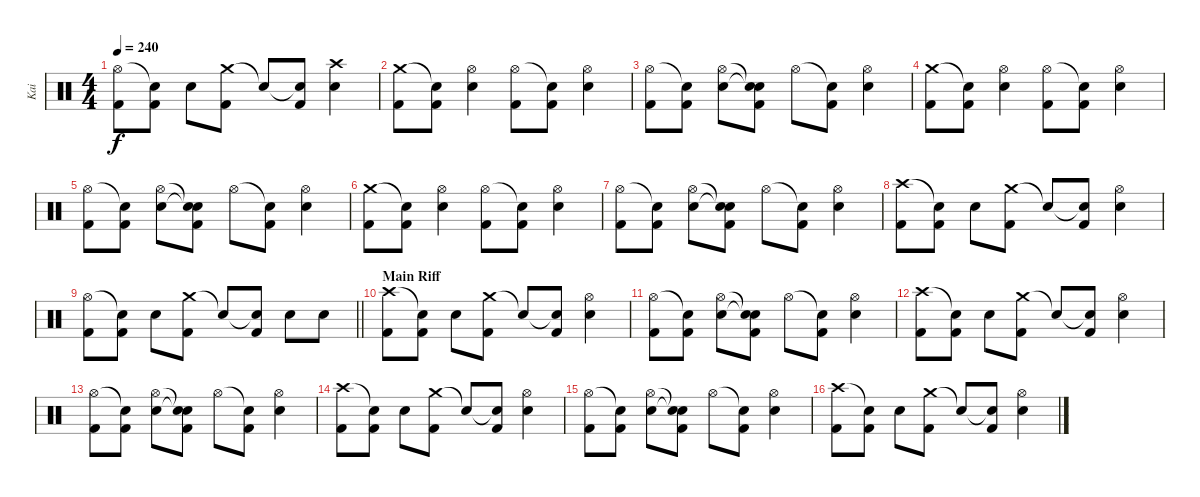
\track ("Kai" "Kai") {instrument percussion}
\staff {score}
\articulation defaults
\ts (4 4)
\tempo 240
\clef neutral
\ks c
("Hi-Hat (open)" "Kick (hit) 2").8{dy f} ("Snare (hit)"{t} "Kick (hit) 2").8 "Snare (hit) 2".8 ("Crash medium (hit)" "Kick (hit) 2").8 "Snare (hit)"{t}.8 ("Snare (hit)"{t} "Kick (hit) 2").8 ("Crash high (hit)" "Snare (hit) 2").4 |
("Crash medium (hit)" "Kick (hit) 2").8 ("Snare (hit)"{t} "Kick (hit) 2").8 ("Hi-Hat (open)" "Snare (hit) 2").4 ("Hi-Hat (open)" "Kick (hit) 2").8 ("Snare (hit)"{t} "Kick (hit) 2").8 ("Hi-Hat (open)" "Snare (hit) 2").4 |
("Hi-Hat (open)" "Kick (hit) 2").8 ("Snare (hit)"{t} "Kick (hit) 2").8 ("Hi-Hat (open)" "Snare (hit) 2").8 ("Snare (hit)"{t} "Snare (hit)"{t} "Kick (hit) 2").8 "Hi-Hat (open)".8 ("Snare (hit)"{t} "Kick (hit) 2").8 ("Hi-Hat (open)" "Snare (hit) 2").4 |
("Crash medium (hit)" "Kick (hit) 2").8 ("Snare (hit)"{t} "Kick (hit) 2").8 ("Hi-Hat (open)" "Snare (hit) 2").4 ("Hi-Hat (open)" "Kick (hit) 2").8 ("Snare (hit)"{t} "Kick (hit) 2").8 ("Hi-Hat (open)" "Snare (hit) 2").4 |
("Hi-Hat (open)" "Kick (hit) 2").8 ("Snare (hit)"{t} "Kick (hit) 2").8 ("Hi-Hat (open)" "Snare (hit) 2").8 ("Snare (hit)"{t} "Snare (hit)"{t} "Kick (hit) 2").8 "Hi-Hat (open)".8 ("Snare (hit)"{t} "Kick (hit) 2").8 ("Hi-Hat (open)" "Snare (hit) 2").4 |
("Crash medium (hit)" "Kick (hit) 2").8 ("Snare (hit)"{t} "Kick (hit) 2").8 ("Hi-Hat (open)" "Snare (hit) 2").4 ("Hi-Hat (open)" "Kick (hit) 2").8 ("Snare (hit)"{t} "Kick (hit) 2").8 ("Hi-Hat (open)" "Snare (hit) 2").4 |
("Hi-Hat (open)" "Kick (hit) 2").8 ("Snare (hit)"{t} "Kick (hit) 2").8 ("Hi-Hat (open)" "Snare (hit) 2").8 ("Snare (hit)"{t} "Snare (hit)"{t} "Kick (hit) 2").8 "Hi-Hat (open)".8 ("Snare (hit)"{t} "Kick (hit) 2").8 ("Hi-Hat (open)" "Snare (hit) 2").4 |
("Crash high (hit)" "Kick (hit) 2").8 ("Snare (hit)"{t} "Kick (hit) 2").8 "Snare (hit) 2".8 ("Crash medium (hit)" "Kick (hit) 2").8 "Snare (hit)"{t}.8 ("Snare (hit)"{t} "Kick (hit) 2").8 ("Hi-Hat (open)" "Snare (hit) 2").4 |
\barLineRight lightlight
("Hi-Hat (open)" "Kick (hit) 2").8 ("Snare (hit)"{t} "Kick (hit) 2").8 "Snare (hit) 2".8 ("Crash medium (hit)" "Kick (hit) 2").8 "Snare (hit)"{t}.8 ("Snare (hit)"{t} "Kick (hit) 2").8 "Snare (hit) 2".8 "Snare (hit) 2".8 |
\section ("" "Main Riff")
("Crash high (hit)" "Kick (hit) 2").8 ("Snare (hit)"{t} "Kick (hit) 2").8 "Snare (hit) 2".8 ("Crash medium (hit)" "Kick (hit) 2").8 "Snare (hit)"{t}.8 ("Snare (hit)"{t} "Kick (hit) 2").8 ("Hi-Hat (open)" "Snare (hit) 2").4 |
("Hi-Hat (open)" "Kick (hit) 2").8 ("Snare (hit)"{t} "Kick (hit) 2").8 ("Hi-Hat (open)" "Snare (hit) 2").8 ("Snare (hit)"{t} "Snare (hit)"{t} "Kick (hit) 2").8 "Hi-Hat (open)".8 ("Snare (hit)"{t} "Kick (hit) 2").8 ("Hi-Hat (open)" "Snare (hit) 2").4 |
("Crash high (hit)" "Kick (hit) 2").8 ("Snare (hit)"{t} "Kick (hit) 2").8 "Snare (hit) 2".8 ("Crash medium (hit)" "Kick (hit) 2").8 "Snare (hit)"{t}.8 ("Snare (hit)"{t} "Kick (hit) 2").8 ("Hi-Hat (open)" "Snare (hit) 2").4 |
("Hi-Hat (open)" "Kick (hit) 2").8 ("Snare (hit)"{t} "Kick (hit) 2").8 ("Hi-Hat (open)" "Snare (hit) 2").8 ("Snare (hit)"{t} "Snare (hit)"{t} "Kick (hit) 2").8 "Hi-Hat (open)".8 ("Snare (hit)"{t} "Kick (hit) 2").8 ("Hi-Hat (open)" "Snare (hit) 2").4 |
("Crash high (hit)" "Kick (hit) 2").8 ("Snare (hit)"{t} "Kick (hit) 2").8 "Snare (hit) 2".8 ("Crash medium (hit)" "Kick (hit) 2").8 "Snare (hit)"{t}.8 ("Snare (hit)"{t} "Kick (hit) 2").8 ("Hi-Hat (open)" "Snare (hit) 2").4 |
("Hi-Hat (open)" "Kick (hit) 2").8 ("Snare (hit)"{t} "Kick (hit) 2").8 ("Hi-Hat (open)" "Snare (hit) 2").8 ("Snare (hit)"{t} "Snare (hit)"{t} "Kick (hit) 2").8 "Hi-Hat (open)".8 ("Snare (hit)"{t} "Kick (hit) 2").8 ("Hi-Hat (open)" "Snare (hit) 2").4 |
("Crash high (hit)" "Kick (hit) 2").8 ("Snare (hit)"{t} "Kick (hit) 2").8 "Snare (hit) 2".8 ("Crash medium (hit)" "Kick (hit) 2").8 "Snare (hit)"{t}.8 ("Snare (hit)"{t} "Kick (hit) 2").8 ("Hi-Hat (open)" "Snare (hit) 2").4
